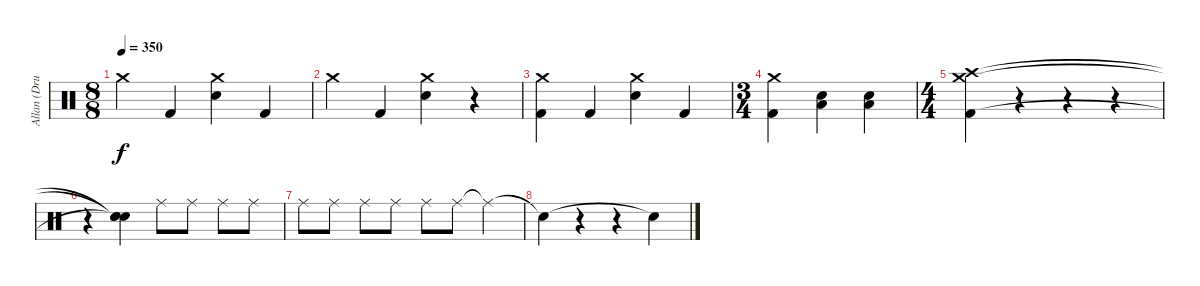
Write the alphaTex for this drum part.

\track ("Allan (Drums)" "Allan (Dru") {solo instrument percussion}
\staff {score}
\articulation defaults
\ts (8 8)
\tempo 350
\clef neutral
\ks c "Crash medium (hit)".4{dy f} "Kick (hit) 2".4
("Crash medium (hit)" "Snare (hit) 2").4 "Kick (hit) 2".4 |
"Crash medium (hit)".4 "Kick (hit) 2".4 ("Crash medium (hit)" "Snare (hit) 2").4 r.4 |
("Crash medium (hit)" "Kick (hit) 2").4 "Kick (hit) 2".4 ("Crash medium (hit)" "Snare (hit) 2").4 "Kick (hit) 2".4 |
\ts (3 4)
("Crash medium (hit)" "Kick (hit) 2").4 ("Low Tom (hit)" "Snare (hit) 2").4 ("Low Tom (hit)" "Snare (hit) 2").4 |
\ts (4 4)
("Crash medium (hit)" "Crash high (hit)" "Kick (hit) 2").4 r.4 r.4 r.4 |
r.4 ("Snare (hit)"{t} "Snare (hit)"{t} "Snare (hit)"{t}).4 "Ride (middle)".8 "Ride (middle)".8 "Ride (middle)".8 "Ride (middle)".8 |
"Ride (middle)".8 "Ride (middle)".8 "Ride (middle)".8 "Ride (middle)".8 "Ride (middle)".8 "Ride (middle)".8 "Ride (middle)"{t}.4 |
"Snare (hit)"{t}.4 r.4 r.4 "Snare (hit)"{t}.4
